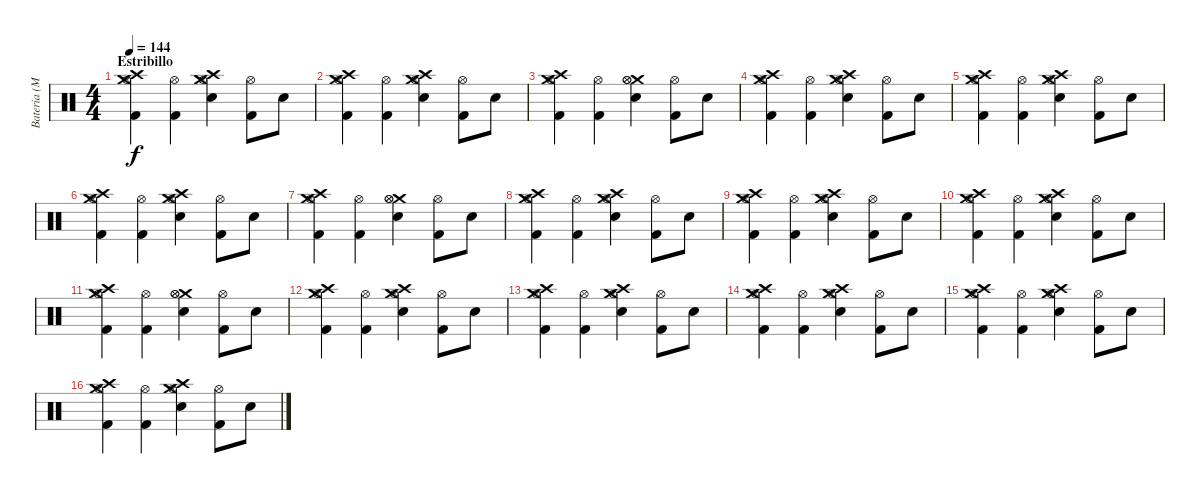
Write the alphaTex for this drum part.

\track ("Bateria (Matt)" "Bateria (M") {instrument percussion}
\staff {score}
\articulation defaults
\ts (4 4)
\section ("" "Estribillo")
\tempo 144
\clef neutral
\ks c
("Crash medium (hit)" "Crash high (hit)" "Hi-Hat (open)" "Kick (hit) 2").4{dy f} ("Hi-Hat (open)" "Kick (hit) 2").4 ("Crash medium (hit)" "Crash high (hit)" "Hi-Hat (open)" "Snare (hit) 2").4 ("Hi-Hat (open)" "Kick (hit) 2").8 "Snare (hit) 2".8 |
("Crash medium (hit)" "Crash high (hit)" "Hi-Hat (open)" "Kick (hit) 2").4 ("Hi-Hat (open)" "Kick (hit) 2").4 ("Crash medium (hit)" "Crash high (hit)" "Hi-Hat (open)" "Snare (hit) 2").4 ("Hi-Hat (open)" "Kick (hit) 2").8 "Snare (hit) 2".8 |
("Crash medium (hit)" "Crash high (hit)" "Hi-Hat (open)" "Kick (hit) 2").4 ("Hi-Hat (open)" "Kick (hit) 2").4 ("Crash medium (hit)" "Hi-Hat (open)" "Hi-Hat (open)" "Snare (hit) 2").4 ("Hi-Hat (open)" "Kick (hit) 2").8 "Snare (hit) 2".8 |
("Crash medium (hit)" "Crash high (hit)" "Hi-Hat (open)" "Kick (hit) 2").4 ("Hi-Hat (open)" "Kick (hit) 2").4 ("Crash medium (hit)" "Crash high (hit)" "Hi-Hat (open)" "Snare (hit) 2").4 ("Hi-Hat (open)" "Kick (hit) 2").8 "Snare (hit) 2".8 |
("Crash medium (hit)" "Crash high (hit)" "Hi-Hat (open)" "Kick (hit) 2").4 ("Hi-Hat (open)" "Kick (hit) 2").4 ("Crash medium (hit)" "Crash high (hit)" "Hi-Hat (open)" "Snare (hit) 2").4 ("Hi-Hat (open)" "Kick (hit) 2").8 "Snare (hit) 2".8 |
("Crash medium (hit)" "Crash high (hit)" "Hi-Hat (open)" "Kick (hit) 2").4 ("Hi-Hat (open)" "Kick (hit) 2").4 ("Crash medium (hit)" "Crash high (hit)" "Hi-Hat (open)" "Snare (hit) 2").4 ("Hi-Hat (open)" "Kick (hit) 2").8 "Snare (hit) 2".8 |
("Crash medium (hit)" "Crash high (hit)" "Hi-Hat (open)" "Kick (hit) 2").4 ("Hi-Hat (open)" "Kick (hit) 2").4 ("Crash medium (hit)" "Hi-Hat (open)" "Hi-Hat (open)" "Snare (hit) 2").4 ("Hi-Hat (open)" "Kick (hit) 2").8 "Snare (hit) 2".8 |
("Crash medium (hit)" "Crash high (hit)" "Hi-Hat (open)" "Kick (hit) 2").4 ("Hi-Hat (open)" "Kick (hit) 2").4 ("Crash medium (hit)" "Crash high (hit)" "Hi-Hat (open)" "Snare (hit) 2").4 ("Hi-Hat (open)" "Kick (hit) 2").8 "Snare (hit) 2".8 |
("Crash medium (hit)" "Crash high (hit)" "Hi-Hat (open)" "Kick (hit) 2").4 ("Hi-Hat (open)" "Kick (hit) 2").4 ("Crash medium (hit)" "Crash high (hit)" "Hi-Hat (open)" "Snare (hit) 2").4 ("Hi-Hat (open)" "Kick (hit) 2").8 "Snare (hit) 2".8 |
("Crash medium (hit)" "Crash high (hit)" "Hi-Hat (open)" "Kick (hit) 2").4 ("Hi-Hat (open)" "Kick (hit) 2").4 ("Crash medium (hit)" "Crash high (hit)" "Hi-Hat (open)" "Snare (hit) 2").4 ("Hi-Hat (open)" "Kick (hit) 2").8 "Snare (hit) 2".8 |
("Crash medium (hit)" "Crash high (hit)" "Hi-Hat (open)" "Kick (hit) 2").4 ("Hi-Hat (open)" "Kick (hit) 2").4 ("Crash medium (hit)" "Hi-Hat (open)" "Hi-Hat (open)" "Snare (hit) 2").4 ("Hi-Hat (open)" "Kick (hit) 2").8 "Snare (hit) 2".8 |
("Crash medium (hit)" "Crash high (hit)" "Hi-Hat (open)" "Kick (hit) 2").4 ("Hi-Hat (open)" "Kick (hit) 2").4 ("Crash medium (hit)" "Crash high (hit)" "Hi-Hat (open)" "Snare (hit) 2").4 ("Hi-Hat (open)" "Kick (hit) 2").8 "Snare (hit) 2".8 |
("Crash medium (hit)" "Crash high (hit)" "Hi-Hat (open)" "Kick (hit) 2").4 ("Hi-Hat (open)" "Kick (hit) 2").4 ("Crash medium (hit)" "Crash high (hit)" "Hi-Hat (open)" "Snare (hit) 2").4 ("Hi-Hat (open)" "Kick (hit) 2").8 "Snare (hit) 2".8 |
("Crash medium (hit)" "Crash high (hit)" "Hi-Hat (open)" "Kick (hit) 2").4 ("Hi-Hat (open)" "Kick (hit) 2").4 ("Crash medium (hit)" "Crash high (hit)" "Hi-Hat (open)" "Snare (hit) 2").4 ("Hi-Hat (open)" "Kick (hit) 2").8 "Snare (hit) 2".8 |
("Crash medium (hit)" "Crash high (hit)" "Hi-Hat (open)" "Kick (hit) 2").4 ("Hi-Hat (open)" "Kick (hit) 2").4 ("Crash medium (hit)" "Crash high (hit)" "Hi-Hat (open)" "Snare (hit) 2").4 ("Hi-Hat (open)" "Kick (hit) 2").8 "Snare (hit) 2".8 |
("Crash medium (hit)" "Crash high (hit)" "Hi-Hat (open)" "Kick (hit) 2").4 ("Hi-Hat (open)" "Kick (hit) 2").4 ("Crash medium (hit)" "Crash high (hit)" "Hi-Hat (open)" "Snare (hit) 2").4 ("Hi-Hat (open)" "Kick (hit) 2").8 "Snare (hit) 2".8
